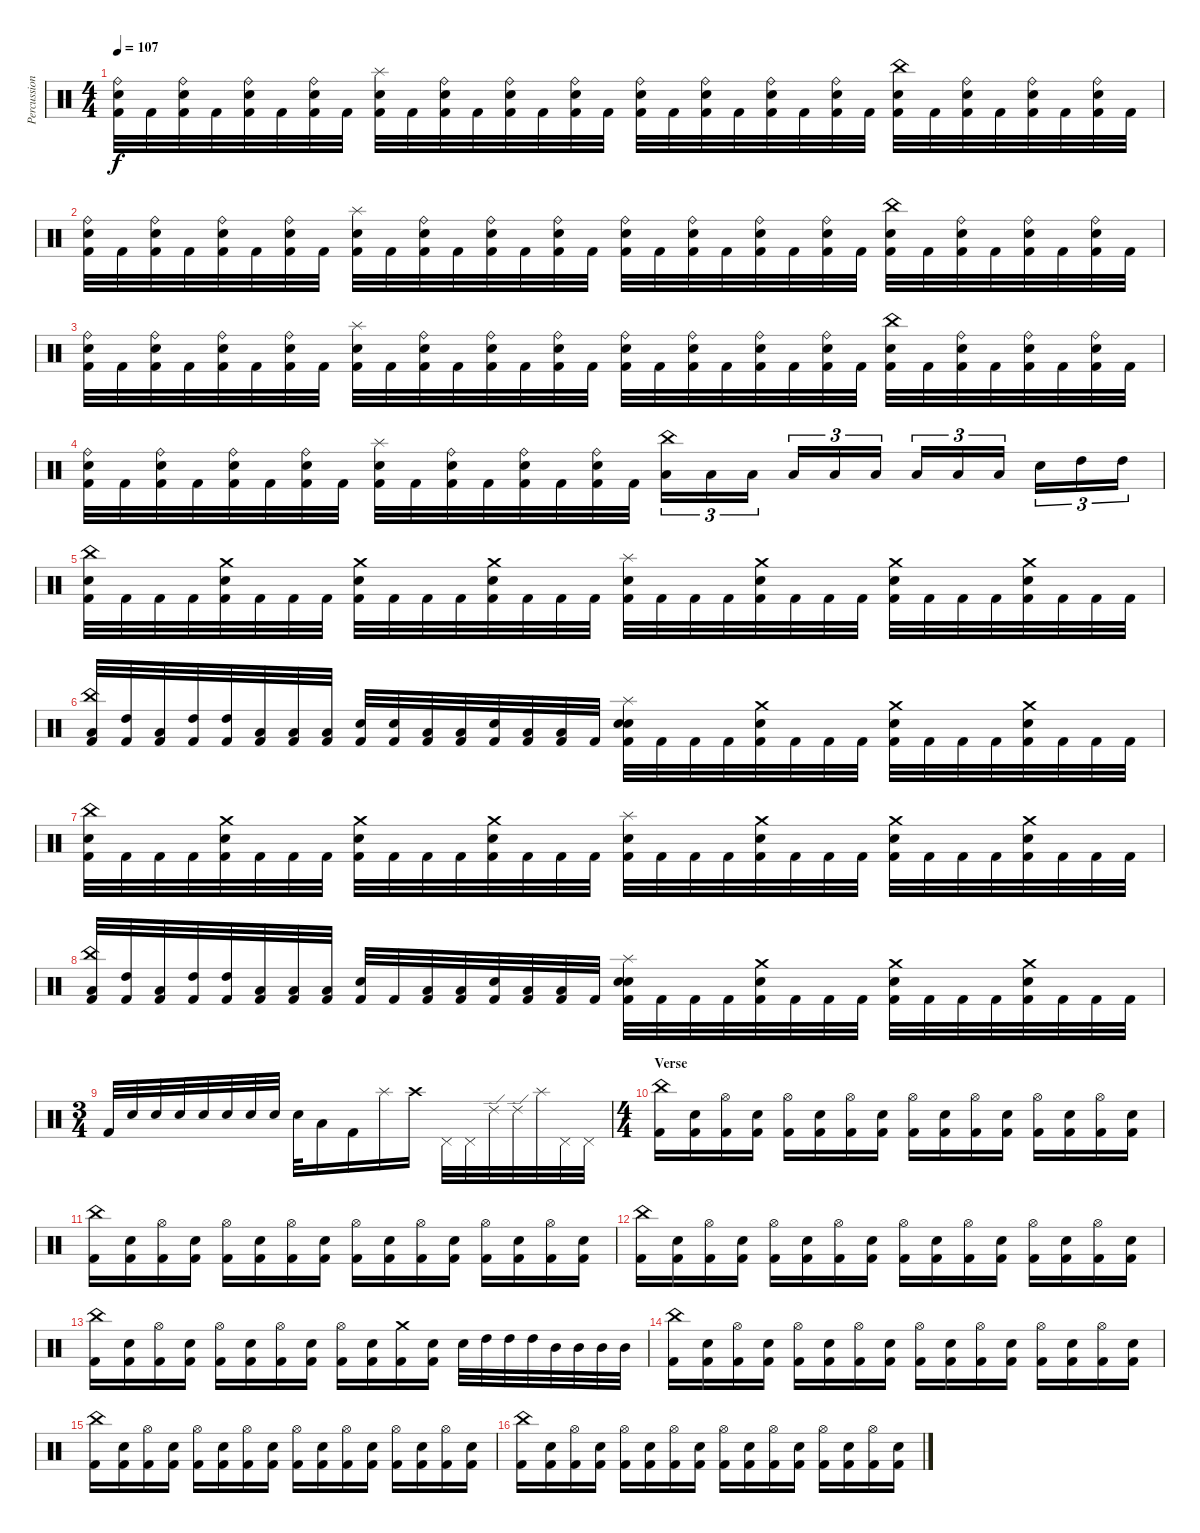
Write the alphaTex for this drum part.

\track ("Percussion" "Percussion") {instrument percussion}
\staff {score}
\articulation defaults
\ts (4 4)
\tempo 107
\clef neutral
\ks c
("Kick (hit) 2" "Electric Snare (hit)" "Ride (bell)").32{dy f} "Kick (hit) 2".32 ("Kick (hit) 2" "Electric Snare (hit)" "Ride (bell)").32 "Kick (hit) 2".32 ("Kick (hit) 2" "Electric Snare (hit)" "Ride (bell)").32 "Kick (hit) 2".32 ("Kick (hit) 2" "Electric Snare (hit)" "Ride (bell)").32 "Kick (hit) 2".32 ("Kick (hit) 2" "Electric Snare (hit)" "Splash (hit)").32 "Kick (hit) 2".32 ("Kick (hit) 2" "Electric Snare (hit)" "Ride (bell)").32 "Kick (hit) 2".32 ("Kick (hit) 2" "Electric Snare (hit)" "Ride (bell)").32 "Kick (hit) 2".32 ("Kick (hit) 2" "Electric Snare (hit)" "Ride (bell)").32 "Kick (hit) 2".32 ("Kick (hit) 2" "Electric Snare (hit)" "Ride (bell)").32 "Kick (hit) 2".32 ("Kick (hit) 2" "Electric Snare (hit)" "Ride (bell)").32 "Kick (hit) 2".32 ("Kick (hit) 2" "Electric Snare (hit)" "Ride (bell)").32 "Kick (hit) 2".32 ("Kick (hit) 2" "Electric Snare (hit)" "Ride (bell)").32 "Kick (hit) 2".32 ("Kick (hit) 2" "Electric Snare (hit)" "China (hit)").32 "Kick (hit) 2".32 ("Kick (hit) 2" "Electric Snare (hit)" "Ride (bell)").32 "Kick (hit) 2".32 ("Kick (hit) 2" "Electric Snare (hit)" "Ride (bell)").32 "Kick (hit) 2".32 ("Kick (hit) 2" "Electric Snare (hit)" "Ride (bell)").32 "Kick (hit) 2".32 |
("Kick (hit) 2" "Electric Snare (hit)" "Ride (bell)").32 "Kick (hit) 2".32 ("Kick (hit) 2" "Electric Snare (hit)" "Ride (bell)").32 "Kick (hit) 2".32 ("Kick (hit) 2" "Electric Snare (hit)" "Ride (bell)").32 "Kick (hit) 2".32 ("Kick (hit) 2" "Electric Snare (hit)" "Ride (bell)").32 "Kick (hit) 2".32 ("Kick (hit) 2" "Electric Snare (hit)" "Splash (hit)").32 "Kick (hit) 2".32 ("Kick (hit) 2" "Electric Snare (hit)" "Ride (bell)").32 "Kick (hit) 2".32 ("Kick (hit) 2" "Electric Snare (hit)" "Ride (bell)").32 "Kick (hit) 2".32 ("Kick (hit) 2" "Electric Snare (hit)" "Ride (bell)").32 "Kick (hit) 2".32 ("Kick (hit) 2" "Electric Snare (hit)" "Ride (bell)").32 "Kick (hit) 2".32 ("Kick (hit) 2" "Electric Snare (hit)" "Ride (bell)").32 "Kick (hit) 2".32 ("Kick (hit) 2" "Electric Snare (hit)" "Ride (bell)").32 "Kick (hit) 2".32 ("Kick (hit) 2" "Electric Snare (hit)" "Ride (bell)").32 "Kick (hit) 2".32 ("Kick (hit) 2" "Electric Snare (hit)" "China (hit)").32 "Kick (hit) 2".32 ("Kick (hit) 2" "Electric Snare (hit)" "Ride (bell)").32 "Kick (hit) 2".32 ("Kick (hit) 2" "Electric Snare (hit)" "Ride (bell)").32 "Kick (hit) 2".32 ("Kick (hit) 2" "Electric Snare (hit)" "Ride (bell)").32 "Kick (hit) 2".32 |
("Kick (hit) 2" "Electric Snare (hit)" "Ride (bell)").32 "Kick (hit) 2".32 ("Kick (hit) 2" "Electric Snare (hit)" "Ride (bell)").32 "Kick (hit) 2".32 ("Kick (hit) 2" "Electric Snare (hit)" "Ride (bell)").32 "Kick (hit) 2".32 ("Kick (hit) 2" "Electric Snare (hit)" "Ride (bell)").32 "Kick (hit) 2".32 ("Kick (hit) 2" "Electric Snare (hit)" "Splash (hit)").32 "Kick (hit) 2".32 ("Kick (hit) 2" "Electric Snare (hit)" "Ride (bell)").32 "Kick (hit) 2".32 ("Kick (hit) 2" "Electric Snare (hit)" "Ride (bell)").32 "Kick (hit) 2".32 ("Kick (hit) 2" "Electric Snare (hit)" "Ride (bell)").32 "Kick (hit) 2".32 ("Kick (hit) 2" "Electric Snare (hit)" "Ride (bell)").32 "Kick (hit) 2".32 ("Kick (hit) 2" "Electric Snare (hit)" "Ride (bell)").32 "Kick (hit) 2".32 ("Kick (hit) 2" "Electric Snare (hit)" "Ride (bell)").32 "Kick (hit) 2".32 ("Kick (hit) 2" "Electric Snare (hit)" "Ride (bell)").32 "Kick (hit) 2".32 ("Kick (hit) 2" "Electric Snare (hit)" "China (hit)").32 "Kick (hit) 2".32 ("Kick (hit) 2" "Electric Snare (hit)" "Ride (bell)").32 "Kick (hit) 2".32 ("Kick (hit) 2" "Electric Snare (hit)" "Ride (bell)").32 "Kick (hit) 2".32 ("Kick (hit) 2" "Electric Snare (hit)" "Ride (bell)").32 "Kick (hit) 2".32 |
("Kick (hit) 2" "Electric Snare (hit)" "Ride (bell)").32 "Kick (hit) 2".32 ("Kick (hit) 2" "Electric Snare (hit)" "Ride (bell)").32 "Kick (hit) 2".32 ("Kick (hit) 2" "Electric Snare (hit)" "Ride (bell)").32 "Kick (hit) 2".32 ("Kick (hit) 2" "Electric Snare (hit)" "Ride (bell)").32 "Kick (hit) 2".32 ("Kick (hit) 2" "Electric Snare (hit)" "Splash (hit)").32 "Kick (hit) 2".32 ("Kick (hit) 2" "Electric Snare (hit)" "Ride (bell)").32 "Kick (hit) 2".32 ("Kick (hit) 2" "Electric Snare (hit)" "Ride (bell)").32 "Kick (hit) 2".32 ("Kick (hit) 2" "Electric Snare (hit)" "Ride (bell)").32 "Kick (hit) 2".32 ("Low Floor Tom (hit)" "China (hit)").16{tu (3 2)} "Low Floor Tom (hit)".16{tu (3 2)} "Low Floor Tom (hit)".16{tu (3 2)} "Low Floor Tom (hit)".16{tu (3 2)} "Low Tom (hit)".16{tu (3 2)} "Low Tom (hit)".16{tu (3 2)} "Low Tom (hit)".16{tu (3 2)} "Low Tom (hit)".16{tu (3 2)} "Low Floor Tom (hit)".16{tu (3 2)} "Electric Snare (hit)".16{tu (3 2)} "High Tom (hit)".16{tu (3 2)} "High Tom (hit)".16{tu (3 2)} |
("Kick (hit) 2" "Electric Snare (hit)" "China (hit)").32 "Kick (hit) 2".32 "Kick (hit) 2".32 "Kick (hit) 2".32 ("Kick (hit) 2" "Electric Snare (hit)" "Crash medium (hit)").32 "Kick (hit) 2".32 "Kick (hit) 2".32 "Kick (hit) 2".32 ("Kick (hit) 2" "Electric Snare (hit)" "Crash medium (hit)").32 "Kick (hit) 2".32 "Kick (hit) 2".32 "Kick (hit) 2".32 ("Kick (hit) 2" "Electric Snare (hit)" "Crash medium (hit)").32 "Kick (hit) 2".32 "Kick (hit) 2".32 "Kick (hit) 2".32 ("Kick (hit) 2" "Electric Snare (hit)" "Splash (hit)").32 "Kick (hit) 2".32 "Kick (hit) 2".32 "Kick (hit) 2".32 ("Kick (hit) 2" "Electric Snare (hit)" "Crash medium (hit)").32 "Kick (hit) 2".32 "Kick (hit) 2".32 "Kick (hit) 2".32 ("Kick (hit) 2" "Electric Snare (hit)" "Crash medium (hit)").32 "Kick (hit) 2".32 "Kick (hit) 2".32 "Kick (hit) 2".32 ("Kick (hit) 2" "Electric Snare (hit)" "Crash medium (hit)").32 "Kick (hit) 2".32 "Kick (hit) 2".32 "Kick (hit) 2".32 |
("Kick (hit) 2" "Low Tom (hit)" "China (hit)").32 ("Kick (hit) 2" "High Tom (hit)").32 ("Kick (hit) 2" "Low Tom (hit)").32 ("Kick (hit) 2" "High Tom (hit)").32 ("Kick (hit) 2" "High Tom (hit)").32 ("Kick (hit) 2" "Low Tom (hit)").32 ("Kick (hit) 2" "Low Tom (hit)").32 ("Kick (hit) 2" "Low Floor Tom (hit)").32 ("Kick (hit) 2" "Electric Snare (hit)").32 ("Kick (hit) 2" "Electric Snare (hit)").32 ("Kick (hit) 2" "Low Floor Tom (hit)").32 ("Kick (hit) 2" "Low Tom (hit)").32 ("Kick (hit) 2" "Electric Snare (hit)").32 ("Kick (hit) 2" "Low Tom (hit)").32 ("Kick (hit) 2" "Low Floor Tom (hit)").32 "Kick (hit) 2".32 ("Kick (hit) 2" "Electric Snare (hit)" "Splash (hit)" "Electric Snare (hit)").32 "Kick (hit) 2".32 "Kick (hit) 2".32 "Kick (hit) 2".32 ("Kick (hit) 2" "Electric Snare (hit)" "Crash medium (hit)").32 "Kick (hit) 2".32 "Kick (hit) 2".32 "Kick (hit) 2".32 ("Kick (hit) 2" "Electric Snare (hit)" "Crash medium (hit)").32 "Kick (hit) 2".32 "Kick (hit) 2".32 "Kick (hit) 2".32 ("Kick (hit) 2" "Electric Snare (hit)" "Crash medium (hit)").32 "Kick (hit) 2".32 "Kick (hit) 2".32 "Kick (hit) 2".32 |
("Kick (hit) 2" "Electric Snare (hit)" "China (hit)").32 "Kick (hit) 2".32 "Kick (hit) 2".32 "Kick (hit) 2".32 ("Kick (hit) 2" "Electric Snare (hit)" "Crash medium (hit)").32 "Kick (hit) 2".32 "Kick (hit) 2".32 "Kick (hit) 2".32 ("Kick (hit) 2" "Electric Snare (hit)" "Crash medium (hit)").32 "Kick (hit) 2".32 "Kick (hit) 2".32 "Kick (hit) 2".32 ("Kick (hit) 2" "Electric Snare (hit)" "Crash medium (hit)").32 "Kick (hit) 2".32 "Kick (hit) 2".32 "Kick (hit) 2".32 ("Kick (hit) 2" "Electric Snare (hit)" "Splash (hit)").32 "Kick (hit) 2".32 "Kick (hit) 2".32 "Kick (hit) 2".32 ("Kick (hit) 2" "Electric Snare (hit)" "Crash medium (hit)").32 "Kick (hit) 2".32 "Kick (hit) 2".32 "Kick (hit) 2".32 ("Kick (hit) 2" "Electric Snare (hit)" "Crash medium (hit)").32 "Kick (hit) 2".32 "Kick (hit) 2".32 "Kick (hit) 2".32 ("Kick (hit) 2" "Electric Snare (hit)" "Crash medium (hit)").32 "Kick (hit) 2".32 "Kick (hit) 2".32 "Kick (hit) 2".32 |
("Kick (hit) 2" "Low Tom (hit)" "China (hit)").32 ("Kick (hit) 2" "High Tom (hit)").32 ("Kick (hit) 2" "Low Tom (hit)").32 ("Kick (hit) 2" "High Tom (hit)").32 ("Kick (hit) 2" "High Tom (hit)").32 ("Kick (hit) 2" "Low Tom (hit)").32 ("Kick (hit) 2" "Low Tom (hit)").32 ("Kick (hit) 2" "Low Tom (hit)").32 ("Kick (hit) 2" "Electric Snare (hit)").32 "Kick (hit) 2".32 ("Kick (hit) 2" "Low Floor Tom (hit)").32 ("Kick (hit) 2" "Low Tom (hit)").32 ("Kick (hit) 2" "Electric Snare (hit)").32 ("Kick (hit) 2" "Low Tom (hit)").32 ("Kick (hit) 2" "Low Floor Tom (hit)").32 "Kick (hit) 2".32 ("Kick (hit) 2" "Electric Snare (hit)" "Splash (hit)" "Electric Snare (hit)").32 "Kick (hit) 2".32 "Kick (hit) 2".32 "Kick (hit) 2".32 ("Kick (hit) 2" "Electric Snare (hit)" "Crash medium (hit)").32 "Kick (hit) 2".32 "Kick (hit) 2".32 "Kick (hit) 2".32 ("Kick (hit) 2" "Electric Snare (hit)" "Crash medium (hit)").32 "Kick (hit) 2".32 "Kick (hit) 2".32 "Kick (hit) 2".32 ("Kick (hit) 2" "Electric Snare (hit)" "Crash medium (hit)").32 "Kick (hit) 2".32 "Kick (hit) 2".32 "Kick (hit) 2".32 |
\ts (3 4)
"Kick (hit) 2".32 "Electric Snare (hit)".32 "Electric Snare (hit)".32 "Electric Snare (hit)".32 "Electric Snare (hit)".32 "Electric Snare (hit)".32 "Electric Snare (hit)".32 "Electric Snare (hit)".32 "Electric Snare (hit)".32 "Low Tom (hit)".16 "Kick (hit) 2".16 "Splash (hit)".16 "Crash high (hit)".16 "Pedal Hi-Hat (hit)".32 "Pedal Hi-Hat (hit)".32 "Ride (edge) 2".32 "Ride (edge) 2".32 "Splash (hit)".32 "Pedal Hi-Hat (hit)".32 "Pedal Hi-Hat (hit)".32 |
\ts (4 4)
\section ("" "Verse")
("Kick (hit) 2" "China (hit)").16 ("Kick (hit) 2" "Electric Snare (hit)").16 ("Kick (hit) 2" "Hi-Hat (open)").16 ("Kick (hit) 2" "Electric Snare (hit)").16 ("Kick (hit) 2" "Hi-Hat (open)").16 ("Kick (hit) 2" "Electric Snare (hit)").16 ("Kick (hit) 2" "Hi-Hat (open)").16 ("Kick (hit) 2" "Electric Snare (hit)").16 ("Kick (hit) 2" "Hi-Hat (open)").16 ("Kick (hit) 2" "Electric Snare (hit)").16 ("Kick (hit) 2" "Hi-Hat (open)").16 ("Kick (hit) 2" "Electric Snare (hit)").16 ("Kick (hit) 2" "Hi-Hat (open)").16 ("Kick (hit) 2" "Electric Snare (hit)").16 ("Kick (hit) 2" "Hi-Hat (open)").16 ("Kick (hit) 2" "Electric Snare (hit)").16 |
("Kick (hit) 2" "China (hit)").16 ("Kick (hit) 2" "Electric Snare (hit)").16 ("Kick (hit) 2" "Hi-Hat (open)").16 ("Kick (hit) 2" "Electric Snare (hit)").16 ("Kick (hit) 2" "Hi-Hat (open)").16 ("Kick (hit) 2" "Electric Snare (hit)").16 ("Kick (hit) 2" "Hi-Hat (open)").16 ("Kick (hit) 2" "Electric Snare (hit)").16 ("Kick (hit) 2" "Hi-Hat (open)").16 ("Kick (hit) 2" "Electric Snare (hit)").16 ("Kick (hit) 2" "Hi-Hat (open)").16 ("Kick (hit) 2" "Electric Snare (hit)").16 ("Kick (hit) 2" "Hi-Hat (open)").16 ("Kick (hit) 2" "Electric Snare (hit)").16 ("Kick (hit) 2" "Hi-Hat (open)").16 ("Kick (hit) 2" "Electric Snare (hit)").16 |
("Kick (hit) 2" "China (hit)").16 ("Kick (hit) 2" "Electric Snare (hit)").16 ("Kick (hit) 2" "Hi-Hat (open)").16 ("Kick (hit) 2" "Electric Snare (hit)").16 ("Kick (hit) 2" "Hi-Hat (open)").16 ("Kick (hit) 2" "Electric Snare (hit)").16 ("Kick (hit) 2" "Hi-Hat (open)").16 ("Kick (hit) 2" "Electric Snare (hit)").16 ("Kick (hit) 2" "Hi-Hat (open)").16 ("Kick (hit) 2" "Electric Snare (hit)").16 ("Kick (hit) 2" "Hi-Hat (open)").16 ("Kick (hit) 2" "Electric Snare (hit)").16 ("Kick (hit) 2" "Hi-Hat (open)").16 ("Kick (hit) 2" "Electric Snare (hit)").16 ("Kick (hit) 2" "Hi-Hat (open)").16 ("Kick (hit) 2" "Electric Snare (hit)").16 |
("Kick (hit) 2" "China (hit)").16 ("Kick (hit) 2" "Electric Snare (hit)").16 ("Kick (hit) 2" "Hi-Hat (open)").16 ("Kick (hit) 2" "Electric Snare (hit)").16 ("Kick (hit) 2" "Hi-Hat (open)").16 ("Kick (hit) 2" "Electric Snare (hit)").16 ("Kick (hit) 2" "Hi-Hat (open)").16 ("Kick (hit) 2" "Electric Snare (hit)").16 ("Kick (hit) 2" "Hi-Hat (open)").16 ("Kick (hit) 2" "Electric Snare (hit)").16 ("Kick (hit) 2" "Crash medium (hit)").16 ("Kick (hit) 2" "Electric Snare (hit)").16 "Electric Snare (hit)".32 "High Tom (hit)".32 "High Tom (hit)".32 "High Tom (hit)".32 "Mid Tom (hit)".32 "Mid Tom (hit)".32 "Mid Tom (hit)".32 "Mid Tom (hit)".32 |
("Kick (hit) 2" "China (hit)").16 ("Kick (hit) 2" "Electric Snare (hit)").16 ("Kick (hit) 2" "Hi-Hat (open)").16 ("Kick (hit) 2" "Electric Snare (hit)").16 ("Kick (hit) 2" "Hi-Hat (open)").16 ("Kick (hit) 2" "Electric Snare (hit)").16 ("Kick (hit) 2" "Hi-Hat (open)").16 ("Kick (hit) 2" "Electric Snare (hit)").16 ("Kick (hit) 2" "Hi-Hat (open)").16 ("Kick (hit) 2" "Electric Snare (hit)").16 ("Kick (hit) 2" "Hi-Hat (open)").16 ("Kick (hit) 2" "Electric Snare (hit)").16 ("Kick (hit) 2" "Hi-Hat (open)").16 ("Kick (hit) 2" "Electric Snare (hit)").16 ("Kick (hit) 2" "Hi-Hat (open)").16 ("Kick (hit) 2" "Electric Snare (hit)").16 |
("Kick (hit) 2" "China (hit)").16 ("Kick (hit) 2" "Electric Snare (hit)").16 ("Kick (hit) 2" "Hi-Hat (open)").16 ("Kick (hit) 2" "Electric Snare (hit)").16 ("Kick (hit) 2" "Hi-Hat (open)").16 ("Kick (hit) 2" "Electric Snare (hit)").16 ("Kick (hit) 2" "Hi-Hat (open)").16 ("Kick (hit) 2" "Electric Snare (hit)").16 ("Kick (hit) 2" "Hi-Hat (open)").16 ("Kick (hit) 2" "Electric Snare (hit)").16 ("Kick (hit) 2" "Hi-Hat (open)").16 ("Kick (hit) 2" "Electric Snare (hit)").16 ("Kick (hit) 2" "Hi-Hat (open)").16 ("Kick (hit) 2" "Electric Snare (hit)").16 ("Kick (hit) 2" "Hi-Hat (open)").16 ("Kick (hit) 2" "Electric Snare (hit)").16 |
("Kick (hit) 2" "China (hit)").16 ("Kick (hit) 2" "Electric Snare (hit)").16 ("Kick (hit) 2" "Hi-Hat (open)").16 ("Kick (hit) 2" "Electric Snare (hit)").16 ("Kick (hit) 2" "Hi-Hat (open)").16 ("Kick (hit) 2" "Electric Snare (hit)").16 ("Kick (hit) 2" "Hi-Hat (open)").16 ("Kick (hit) 2" "Electric Snare (hit)").16 ("Kick (hit) 2" "Hi-Hat (open)").16 ("Kick (hit) 2" "Electric Snare (hit)").16 ("Kick (hit) 2" "Hi-Hat (open)").16 ("Kick (hit) 2" "Electric Snare (hit)").16 ("Kick (hit) 2" "Hi-Hat (open)").16 ("Kick (hit) 2" "Electric Snare (hit)").16 ("Kick (hit) 2" "Hi-Hat (open)").16 ("Kick (hit) 2" "Electric Snare (hit)").16
